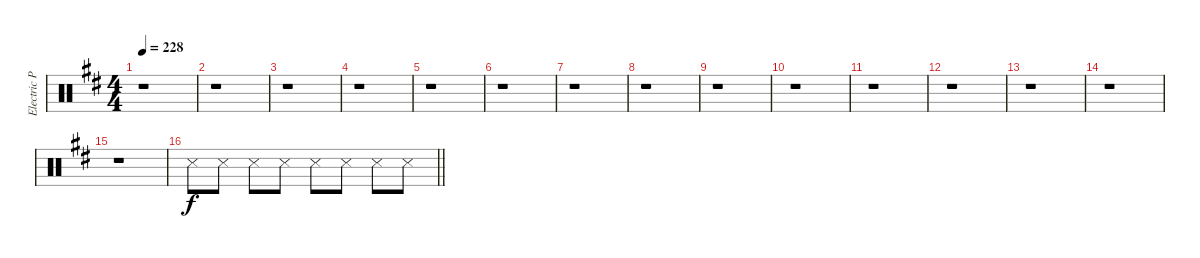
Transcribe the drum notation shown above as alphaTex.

\track ("Electric Percussion" "Electric P") {instrument percussion}
\staff {score}
\articulation defaults
\ts (4 4)
\tempo 228
\clef neutral
\ks d
r.1{dy mf} |
r.1 |
r.1 |
r.1 |
r.1 |
r.1 |
r.1 |
r.1 |
r.1 |
r.1 |
r.1 |
r.1 |
r.1 |
r.1 |
r.1 |
\barLineRight lightlight "Snare (side stick) 3".8{dy f} "Snare (side stick) 3".8 "Snare (side stick) 3".8 "Snare (side stick) 3".8 "Snare (side stick) 3".8 "Snare (side stick) 3".8 "Snare (side stick) 3".8 "Snare (side stick) 3".8
